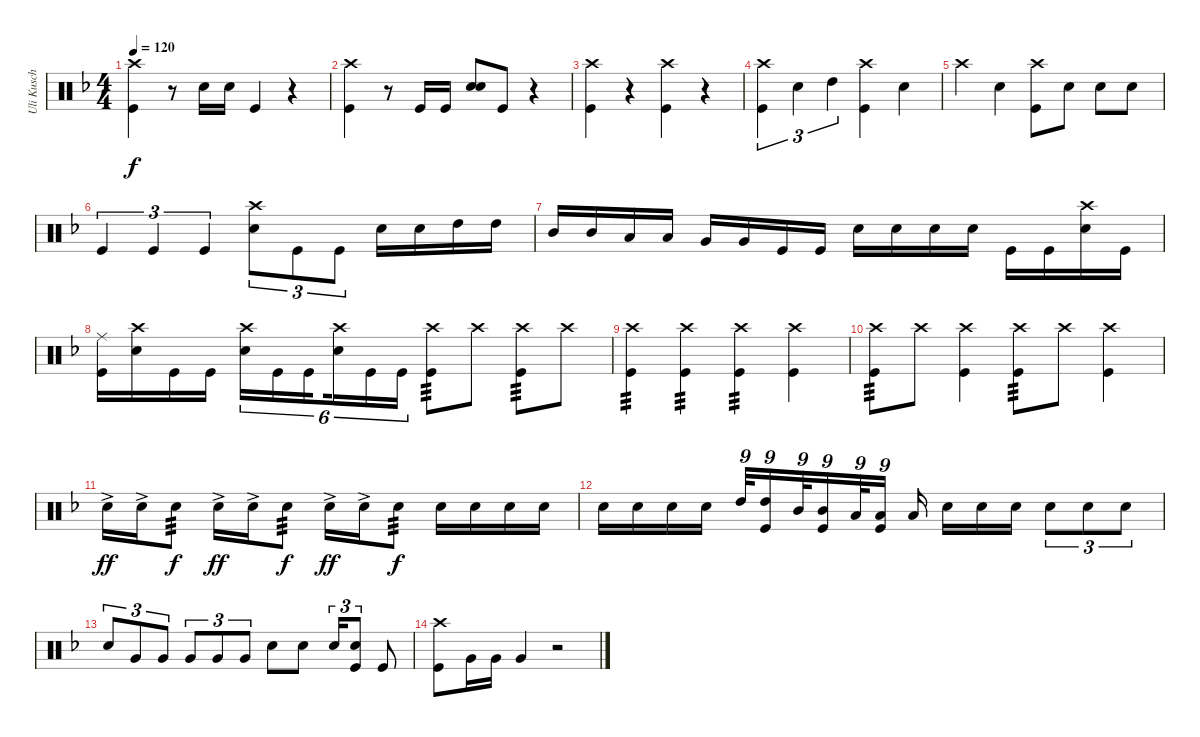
\track ("Uli Kusch" "Uli Kusch") {instrument percussion}
\staff {score}
\articulation defaults
\ts (4 4)
\tempo 120
\clef neutral
\ks dminor
("Crash high (hit)" "Kick (hit)").4{dy f} r.8 "Snare (hit) 2".16 "Snare (hit) 2".16 "Kick (hit)".4 r.4 |
("Crash high (hit)" "Kick (hit)").4 r.8 "Kick (hit)".16 "Kick (hit)".16 ("Snare (hit) 2" "Snare (hit) 2").8 "Kick (hit)".8 r.4 |
("Crash high (hit)" "Kick (hit)").4 r.4 ("Crash high (hit)" "Kick (hit)").4 r.4 |
("Crash high (hit)" "Kick (hit)").4{tu (3 2)} "Snare (hit) 2".4{tu (3 2)} "High Tom (hit)".4{tu (3 2)} ("Crash high (hit)" "Kick (hit)").4 "Snare (hit) 2".4 |
"Crash high (hit)".4 "Snare (hit) 2".4 ("Crash high (hit)" "Kick (hit)").8 "Snare (hit) 2".8 "Snare (hit) 2".8 "Snare (hit) 2".8 |
"Kick (hit)".4{tu (3 2)} "Kick (hit)".4{tu (3 2)} "Kick (hit)".4{tu (3 2)} ("Crash high (hit)" "Snare (hit) 2").8{tu (3 2)} "Kick (hit)".8{tu (3 2)} "Kick (hit)".8{tu (3 2)} "Snare (hit) 2".16 "Snare (hit) 2".16 "High Tom (hit)".16 "High Tom (hit)".16 |
"Mid Tom (hit)".16 "Mid Tom (hit)".16 "Low Tom (hit)".16 "Low Tom (hit)".16 "Very Low Tom (hit)".16 "Very Low Tom (hit)".16 "Kick (hit)".16 "Kick (hit)".16 "Snare (hit) 2".16 "Snare (hit) 2".16 "Snare (hit) 2".16 "Snare (hit) 2".16 "Kick (hit)".16 "Kick (hit)".16 ("Crash high (hit)" "Snare (hit) 2").16 "Kick (hit)".16 |
("Ride (middle)" "Kick (hit)").16 ("Crash high (hit)" "Snare (hit) 2").16 "Kick (hit)".16 "Kick (hit)".16 ("Crash high (hit)" "Snare (hit) 2").16{tu (6 4)} "Kick (hit)".16{tu (6 4)} "Kick (hit)".16{tu (6 4) beam splitsecondary} ("Crash high (hit)" "Snare (hit) 2").16{tu (6 4)} "Kick (hit)".16{tu (6 4)} "Kick (hit)".16{tu (6 4)} ("Crash high (hit)" "Kick (hit)").8{tp 3} "Crash high (hit)".8 ("Crash high (hit)" "Kick (hit)").8{tp 3} "Crash high (hit)".8 |
("Crash high (hit)" "Kick (hit)").4{tp 3} ("Crash high (hit)" "Kick (hit)").4{tp 3} ("Crash high (hit)" "Kick (hit)").4{tp 3} ("Crash high (hit)" "Kick (hit)").4 |
("Crash high (hit)" "Kick (hit)").8{tp 3} "Crash high (hit)".8 ("Crash high (hit)" "Kick (hit)").4 ("Crash high (hit)" "Kick (hit)").8{tp 3} "Crash high (hit)".8 ("Crash high (hit)" "Kick (hit)").4 |
"Snare (hit) 2"{ac}.16{dy ff} "Snare (hit) 2"{ac}.16 "Snare (hit) 2".8{tp 3 dy f} "Snare (hit) 2"{ac}.16{dy ff} "Snare (hit) 2"{ac}.16 "Snare (hit) 2".8{tp 3 dy f} "Snare (hit) 2"{ac}.16{dy ff} "Snare (hit) 2"{ac}.16 "Snare (hit) 2".8{tp 3 dy f} "Snare (hit) 2".16 "Snare (hit) 2".16 "Snare (hit) 2".16 "Snare (hit) 2".16 |
"Snare (hit) 2".16 "Snare (hit) 2".16 "Snare (hit) 2".16 "Snare (hit) 2".16 "High Tom (hit)".32{tu (9 8)} ("High Tom (hit)" "Kick (hit)").16{tu (9 8)} "Mid Tom (hit)".32{tu (9 8)} ("Mid Tom (hit)" "Kick (hit)").16{tu (9 8)} "Low Tom (hit)".32{tu (9 8)} ("Low Tom (hit)" "Kick (hit)").16{tu (9 8)} "Low Tom (hit)".16 "Snare (hit) 2".16 "Snare (hit) 2".16 "Snare (hit) 2".16 "Snare (hit) 2".8{tu (3 2)} "Snare (hit) 2".8{tu (3 2)} "Snare (hit) 2".8{tu (3 2)} |
"Snare (hit) 2".8{tu (3 2)} "Very Low Tom (hit)".8{tu (3 2)} "Very Low Tom (hit)".8{tu (3 2)} "Very Low Tom (hit)".8{tu (3 2)} "Very Low Tom (hit)".8{tu (3 2)} "Very Low Tom (hit)".8{tu (3 2)} "Snare (hit) 2".8 "Snare (hit) 2".8 "Snare (hit) 2".16{tu (3 2)} ("Snare (hit) 2" "Kick (hit)").8{tu (3 2)} "Kick (hit)".8 |
("Crash high (hit)" "Kick (hit)").8 "Very Low Tom (hit)".16 "Very Low Tom (hit)".16 "Very Low Tom (hit)".4 r.2
